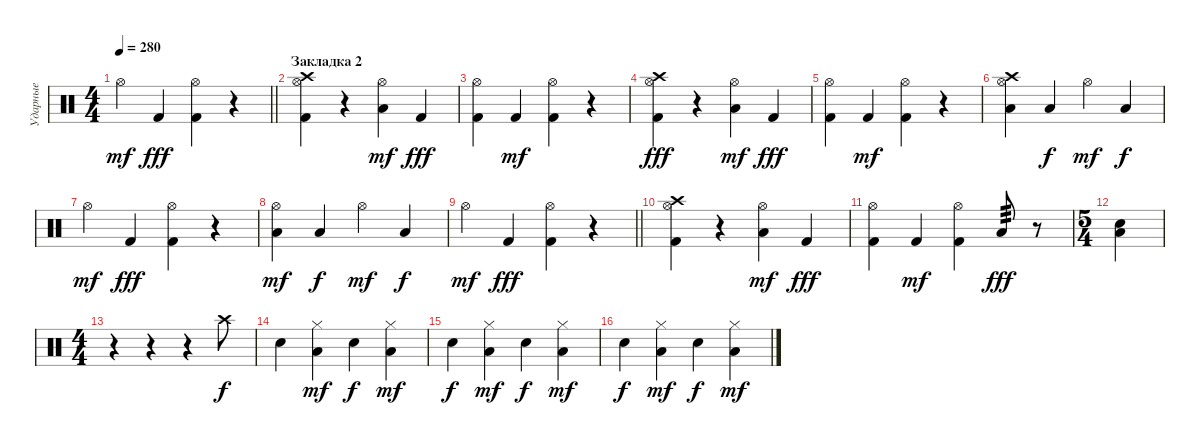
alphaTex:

\track ("Ударные" "Ударные") {instrument percussion}
\staff {score}
\articulation defaults
\ts (4 4)
\tempo 280
\clef neutral
\barLineRight lightlight
\ks c "Hi-Hat (open)".4{dy mf} "Kick (hit) 2".4{dy fff}
("Hi-Hat (open)" "Kick (hit) 2").4 r.4 |
\section ("" "Закладка 2")
("Hi-Hat (open)" "Crash high (hit)" "Kick (hit) 2").4 r.4 ("Hi-Hat (open)" "Low Tom (hit)").4{dy mf} "Kick (hit) 2".4{dy fff} |
("Hi-Hat (open)" "Kick (hit) 2").4 "Kick (hit) 2".4{dy mf} ("Hi-Hat (open)" "Kick (hit) 2").4 r.4 |
("Hi-Hat (open)" "Crash high (hit)" "Kick (hit) 2").4{dy fff} r.4 ("Hi-Hat (open)" "Low Tom (hit)").4{dy mf} "Kick (hit) 2".4{dy fff} |
("Hi-Hat (open)" "Kick (hit) 2").4 "Kick (hit) 2".4{dy mf} ("Hi-Hat (open)" "Kick (hit) 2").4 r.4 |
("Hi-Hat (open)" "Crash high (hit)" "Low Tom (hit)").4 "Low Tom (hit)".4{dy f} "Hi-Hat (open)".4{dy mf} "Low Tom (hit)".4{dy f} |
"Hi-Hat (open)".4{dy mf} "Kick (hit) 2".4{dy fff} ("Hi-Hat (open)" "Kick (hit) 2").4 r.4 |
("Hi-Hat (open)" "Low Tom (hit)").4{dy mf} "Low Tom (hit)".4{dy f} "Hi-Hat (open)".4{dy mf} "Low Tom (hit)".4{dy f} |
\barLineRight lightlight "Hi-Hat (open)".4{dy mf} "Kick (hit) 2".4{dy fff}
("Hi-Hat (open)" "Kick (hit) 2").4 r.4 |
("Hi-Hat (open)" "Crash high (hit)" "Kick (hit) 2").4 r.4 ("Hi-Hat (open)" "Low Tom (hit)").4{dy mf} "Kick (hit) 2".4{dy fff} |
("Hi-Hat (open)" "Kick (hit) 2").4 "Kick (hit) 2".4{dy mf} ("Hi-Hat (open)" "Kick (hit) 2").4 "Low Tom (hit)".8{tp 3 dy fff} r.8 |
\ts (5 4)
("Low Tom (hit)" "Snare (hit) 2").4 |
\ts (4 4)
r.4 r.4 r.4 "Crash high (hit)".8{dy f} |
"Snare (hit) 2".4 ("Low Tom (hit)" "Hi-Hat (closed)").4{dy mf} "Snare (hit) 2".4{dy f} ("Low Tom (hit)" "Hi-Hat (closed)").4{dy mf} |
"Snare (hit) 2".4{dy f} ("Low Tom (hit)" "Hi-Hat (closed)").4{dy mf} "Snare (hit) 2".4{dy f} ("Low Tom (hit)" "Hi-Hat (closed)").4{dy mf} |
"Snare (hit) 2".4{dy f} ("Low Tom (hit)" "Hi-Hat (closed)").4{dy mf} "Snare (hit) 2".4{dy f} ("Low Tom (hit)" "Hi-Hat (closed)").4{dy mf}
